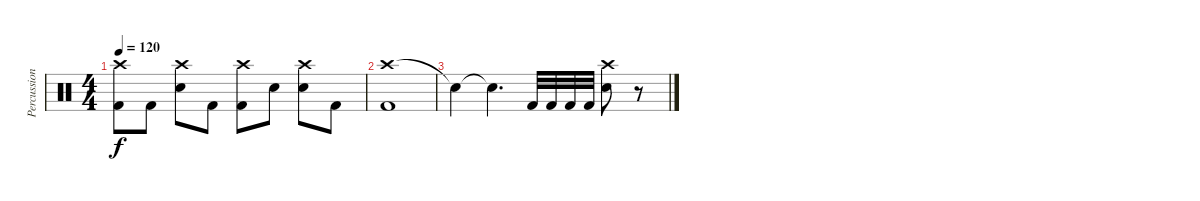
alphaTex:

\track ("Percussion" "Percussion") {instrument percussion}
\staff {score}
\articulation defaults
\ts (4 4)
\tempo 120
\clef neutral
\ks c
("Crash high (hit)" "Kick (hit) 2").8{dy f} "Kick (hit) 2".8 ("Crash high (hit)" "Snare (hit) 2").8 "Kick (hit) 2".8 ("Crash high (hit)" "Kick (hit) 2").8 "Snare (hit) 2".8 ("Crash high (hit)" "Snare (hit) 2").8 "Kick (hit) 2".8 |
("Crash high (hit)" "Kick (hit) 2").1 |
"Snare (hit)"{t}.4 "Snare (hit)"{t}.4{d} "Kick (hit) 2".32 "Kick (hit) 2".32 "Kick (hit) 2".32 "Kick (hit) 2".32 ("Crash high (hit)" "Snare (hit) 2").8 r.8
